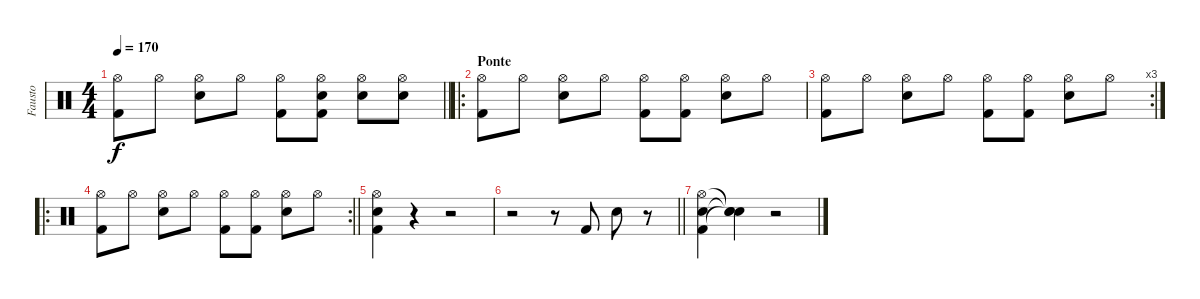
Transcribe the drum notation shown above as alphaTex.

\track ("Fausto" "Fausto") {instrument percussion}
\staff {score}
\articulation defaults
\ts (4 4)
\tempo 170
\clef neutral
\barLineRight lightlight
\ks c
("Hi-Hat (open)" "Kick (hit) 2").8{dy f} "Hi-Hat (open)".8 ("Hi-Hat (open)" "Snare (hit) 2").8 "Hi-Hat (open)".8 ("Hi-Hat (open)" "Kick (hit) 2").8 ("Hi-Hat (open)" "Snare (hit) 2" "Kick (hit) 2").8 ("Hi-Hat (open)" "Snare (hit) 2").8 ("Hi-Hat (open)" "Snare (hit) 2").8 |
\ro
\section ("" "Ponte")
("Hi-Hat (open)" "Kick (hit) 2").8 "Hi-Hat (open)".8 ("Hi-Hat (open)" "Snare (hit) 2").8 "Hi-Hat (open)".8 ("Hi-Hat (open)" "Kick (hit) 2").8 ("Hi-Hat (open)" "Kick (hit) 2").8 ("Hi-Hat (open)" "Snare (hit) 2").8 "Hi-Hat (open)".8 |
\rc 3
("Hi-Hat (open)" "Kick (hit) 2").8 "Hi-Hat (open)".8 ("Hi-Hat (open)" "Snare (hit) 2").8 "Hi-Hat (open)".8 ("Hi-Hat (open)" "Kick (hit) 2").8 ("Hi-Hat (open)" "Kick (hit) 2").8 ("Hi-Hat (open)" "Snare (hit) 2").8 "Hi-Hat (open)".8 |
\ro
\rc 2
\barLineRight lightlight
("Hi-Hat (open)" "Kick (hit) 2").8 "Hi-Hat (open)".8 ("Hi-Hat (open)" "Snare (hit) 2").8 "Hi-Hat (open)".8 ("Hi-Hat (open)" "Kick (hit) 2").8 ("Hi-Hat (open)" "Kick (hit) 2").8 ("Hi-Hat (open)" "Snare (hit) 2").8 "Hi-Hat (open)".8 |
("Hi-Hat (open)" "Snare (hit) 2" "Kick (hit) 2").4 r.4 r.2 |
\barLineRight lightlight
r.2 r.8 "Kick (hit) 2".8 "Snare (hit) 2".8 r.8 |
("Hi-Hat (open)" "Snare (hit) 2" "Kick (hit) 2").4 ("Snare (hit)"{t} "Snare (hit)"{t} "Snare (hit)"{t}).4 r.2
